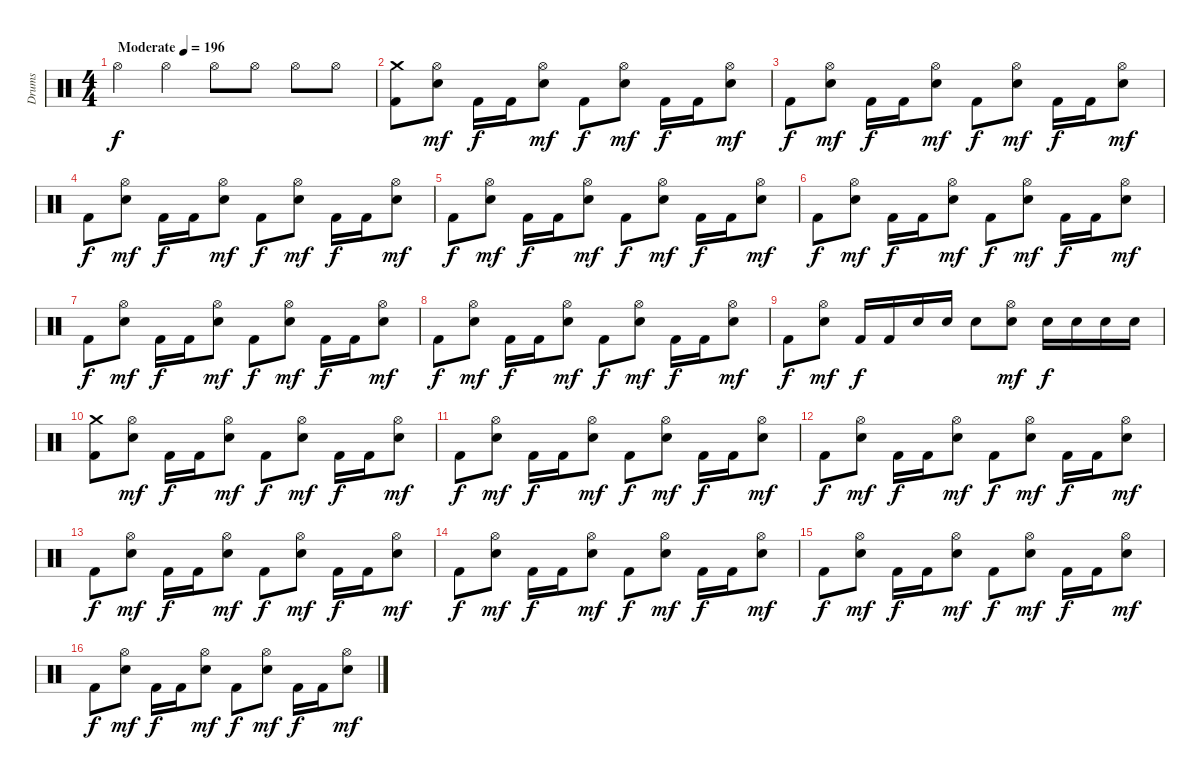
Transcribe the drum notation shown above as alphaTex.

\track ("Drums" "Drums") {instrument percussion}
\staff
\articulation defaults
\ts (4 4)
\tempo (196 "Moderate")
\clef neutral
\ks c "Hi-Hat (open)".4{dy f} "Hi-Hat (open)".4 "Hi-Hat (open)".8 "Hi-Hat (open)".8 "Hi-Hat (open)".8 "Hi-Hat (open)".8
|
("Crash medium (hit)" "Kick (hit) 2").8 ("Hi-Hat (open)" "Electric Snare (hit)").8{dy mf} "Kick (hit) 2".16{dy f} "Kick (hit) 2".16 ("Hi-Hat (open)" "Electric Snare (hit)").8{dy mf} "Kick (hit) 2".8{dy f} ("Hi-Hat (open)" "Electric Snare (hit)").8{dy mf} "Kick (hit) 2".16{dy f} "Kick (hit) 2".16 ("Hi-Hat (open)" "Electric Snare (hit)").8{dy mf} |
"Kick (hit) 2".8{dy f} ("Hi-Hat (open)" "Electric Snare (hit)").8{dy mf} "Kick (hit) 2".16{dy f} "Kick (hit) 2".16 ("Hi-Hat (open)" "Electric Snare (hit)").8{dy mf} "Kick (hit) 2".8{dy f} ("Hi-Hat (open)" "Electric Snare (hit)").8{dy mf} "Kick (hit) 2".16{dy f} "Kick (hit) 2".16 ("Hi-Hat (open)" "Electric Snare (hit)").8{dy mf} |
"Kick (hit) 2".8{dy f} ("Hi-Hat (open)" "Electric Snare (hit)").8{dy mf} "Kick (hit) 2".16{dy f} "Kick (hit) 2".16 ("Hi-Hat (open)" "Electric Snare (hit)").8{dy mf} "Kick (hit) 2".8{dy f} ("Hi-Hat (open)" "Electric Snare (hit)").8{dy mf} "Kick (hit) 2".16{dy f} "Kick (hit) 2".16 ("Hi-Hat (open)" "Electric Snare (hit)").8{dy mf} |
"Kick (hit) 2".8{dy f} ("Hi-Hat (open)" "Electric Snare (hit)").8{dy mf} "Kick (hit) 2".16{dy f} "Kick (hit) 2".16 ("Hi-Hat (open)" "Electric Snare (hit)").8{dy mf} "Kick (hit) 2".8{dy f} ("Hi-Hat (open)" "Electric Snare (hit)").8{dy mf} "Kick (hit) 2".16{dy f} "Kick (hit) 2".16 ("Hi-Hat (open)" "Electric Snare (hit)").8{dy mf} |
"Kick (hit) 2".8{dy f} ("Hi-Hat (open)" "Electric Snare (hit)").8{dy mf} "Kick (hit) 2".16{dy f} "Kick (hit) 2".16 ("Hi-Hat (open)" "Electric Snare (hit)").8{dy mf} "Kick (hit) 2".8{dy f} ("Hi-Hat (open)" "Electric Snare (hit)").8{dy mf} "Kick (hit) 2".16{dy f} "Kick (hit) 2".16 ("Hi-Hat (open)" "Electric Snare (hit)").8{dy mf} |
"Kick (hit) 2".8{dy f} ("Hi-Hat (open)" "Electric Snare (hit)").8{dy mf} "Kick (hit) 2".16{dy f} "Kick (hit) 2".16 ("Hi-Hat (open)" "Electric Snare (hit)").8{dy mf} "Kick (hit) 2".8{dy f} ("Hi-Hat (open)" "Electric Snare (hit)").8{dy mf} "Kick (hit) 2".16{dy f} "Kick (hit) 2".16 ("Hi-Hat (open)" "Electric Snare (hit)").8{dy mf} |
"Kick (hit) 2".8{dy f} ("Hi-Hat (open)" "Electric Snare (hit)").8{dy mf} "Kick (hit) 2".16{dy f} "Kick (hit) 2".16 ("Hi-Hat (open)" "Electric Snare (hit)").8{dy mf} "Kick (hit) 2".8{dy f} ("Hi-Hat (open)" "Electric Snare (hit)").8{dy mf} "Kick (hit) 2".16{dy f} "Kick (hit) 2".16 ("Hi-Hat (open)" "Electric Snare (hit)").8{dy mf} |
"Kick (hit) 2".8{dy f} ("Hi-Hat (open)" "Electric Snare (hit)").8{dy mf} "Kick (hit) 2".16{dy f} "Kick (hit) 2".16 "Electric Snare (hit)".16 "Electric Snare (hit)".16 "Electric Snare (hit)".8 ("Hi-Hat (open)" "Electric Snare (hit)").8{dy mf} "Electric Snare (hit)".16{dy f} "Electric Snare (hit)".16 "Electric Snare (hit)".16 "Electric Snare (hit)".16 |
("Crash medium (hit)" "Kick (hit) 2").8 ("Hi-Hat (open)" "Electric Snare (hit)").8{dy mf} "Kick (hit) 2".16{dy f} "Kick (hit) 2".16 ("Hi-Hat (open)" "Electric Snare (hit)").8{dy mf} "Kick (hit) 2".8{dy f} ("Hi-Hat (open)" "Electric Snare (hit)").8{dy mf} "Kick (hit) 2".16{dy f} "Kick (hit) 2".16 ("Hi-Hat (open)" "Electric Snare (hit)").8{dy mf} |
"Kick (hit) 2".8{dy f} ("Hi-Hat (open)" "Electric Snare (hit)").8{dy mf} "Kick (hit) 2".16{dy f} "Kick (hit) 2".16 ("Hi-Hat (open)" "Electric Snare (hit)").8{dy mf} "Kick (hit) 2".8{dy f} ("Hi-Hat (open)" "Electric Snare (hit)").8{dy mf} "Kick (hit) 2".16{dy f} "Kick (hit) 2".16 ("Hi-Hat (open)" "Electric Snare (hit)").8{dy mf} |
"Kick (hit) 2".8{dy f} ("Hi-Hat (open)" "Electric Snare (hit)").8{dy mf} "Kick (hit) 2".16{dy f} "Kick (hit) 2".16 ("Hi-Hat (open)" "Electric Snare (hit)").8{dy mf} "Kick (hit) 2".8{dy f} ("Hi-Hat (open)" "Electric Snare (hit)").8{dy mf} "Kick (hit) 2".16{dy f} "Kick (hit) 2".16 ("Hi-Hat (open)" "Electric Snare (hit)").8{dy mf} |
"Kick (hit) 2".8{dy f} ("Hi-Hat (open)" "Electric Snare (hit)").8{dy mf} "Kick (hit) 2".16{dy f} "Kick (hit) 2".16 ("Hi-Hat (open)" "Electric Snare (hit)").8{dy mf} "Kick (hit) 2".8{dy f} ("Hi-Hat (open)" "Electric Snare (hit)").8{dy mf} "Kick (hit) 2".16{dy f} "Kick (hit) 2".16 ("Hi-Hat (open)" "Electric Snare (hit)").8{dy mf} |
"Kick (hit) 2".8{dy f} ("Hi-Hat (open)" "Electric Snare (hit)").8{dy mf} "Kick (hit) 2".16{dy f} "Kick (hit) 2".16 ("Hi-Hat (open)" "Electric Snare (hit)").8{dy mf} "Kick (hit) 2".8{dy f} ("Hi-Hat (open)" "Electric Snare (hit)").8{dy mf} "Kick (hit) 2".16{dy f} "Kick (hit) 2".16 ("Hi-Hat (open)" "Electric Snare (hit)").8{dy mf} |
"Kick (hit) 2".8{dy f} ("Hi-Hat (open)" "Electric Snare (hit)").8{dy mf} "Kick (hit) 2".16{dy f} "Kick (hit) 2".16 ("Hi-Hat (open)" "Electric Snare (hit)").8{dy mf} "Kick (hit) 2".8{dy f} ("Hi-Hat (open)" "Electric Snare (hit)").8{dy mf} "Kick (hit) 2".16{dy f} "Kick (hit) 2".16 ("Hi-Hat (open)" "Electric Snare (hit)").8{dy mf} |
"Kick (hit) 2".8{dy f} ("Hi-Hat (open)" "Electric Snare (hit)").8{dy mf} "Kick (hit) 2".16{dy f} "Kick (hit) 2".16 ("Hi-Hat (open)" "Electric Snare (hit)").8{dy mf} "Kick (hit) 2".8{dy f} ("Hi-Hat (open)" "Electric Snare (hit)").8{dy mf} "Kick (hit) 2".16{dy f} "Kick (hit) 2".16 ("Hi-Hat (open)" "Electric Snare (hit)").8{dy mf}
